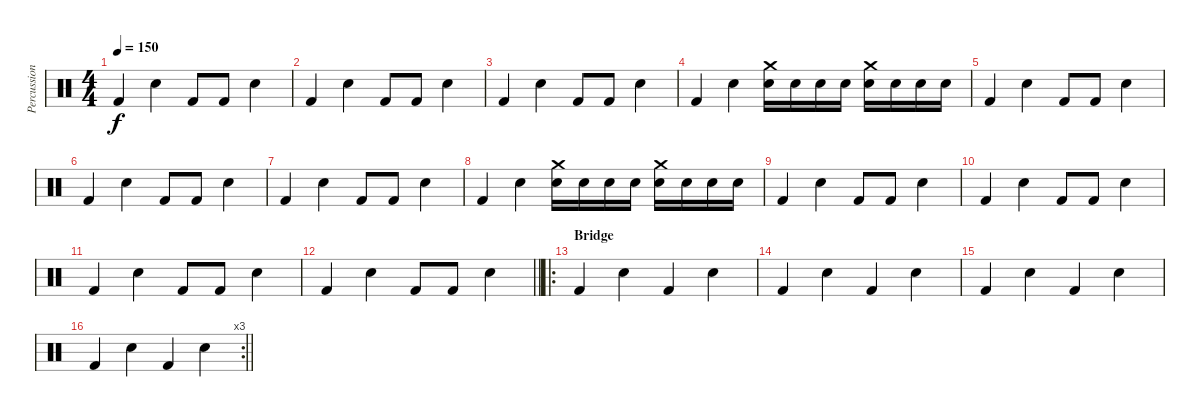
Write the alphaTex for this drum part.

\track ("Percussion" "Percussion") {instrument percussion bank 255}
\staff {score}
\articulation defaults
\ts (4 4)
\tempo 150
\clef neutral
\ks c "Kick (hit) 2".4{dy f} "Electric Snare (hit)".4 "Kick (hit) 2".8 "Kick (hit) 2".8 "Electric Snare (hit)".4
|
"Kick (hit) 2".4 "Electric Snare (hit)".4 "Kick (hit) 2".8 "Kick (hit) 2".8 "Electric Snare (hit)".4 |
"Kick (hit) 2".4 "Electric Snare (hit)".4 "Kick (hit) 2".8 "Kick (hit) 2".8 "Electric Snare (hit)".4 |
"Kick (hit) 2".4 "Electric Snare (hit)".4 ("Crash medium (hit)" "Electric Snare (hit)").16 "Electric Snare (hit)".16 "Electric Snare (hit)".16 "Electric Snare (hit)".16 ("Crash medium (hit)" "Electric Snare (hit)").16 "Electric Snare (hit)".16 "Electric Snare (hit)".16 "Electric Snare (hit)".16 |
"Kick (hit) 2".4 "Electric Snare (hit)".4 "Kick (hit) 2".8 "Kick (hit) 2".8 "Electric Snare (hit)".4 |
"Kick (hit) 2".4 "Electric Snare (hit)".4 "Kick (hit) 2".8 "Kick (hit) 2".8 "Electric Snare (hit)".4 |
"Kick (hit) 2".4 "Electric Snare (hit)".4 "Kick (hit) 2".8 "Kick (hit) 2".8 "Electric Snare (hit)".4 |
"Kick (hit) 2".4 "Electric Snare (hit)".4 ("Crash medium (hit)" "Electric Snare (hit)").16 "Electric Snare (hit)".16 "Electric Snare (hit)".16 "Electric Snare (hit)".16 ("Crash medium (hit)" "Electric Snare (hit)").16 "Electric Snare (hit)".16 "Electric Snare (hit)".16 "Electric Snare (hit)".16 |
"Kick (hit) 2".4 "Electric Snare (hit)".4 "Kick (hit) 2".8 "Kick (hit) 2".8 "Electric Snare (hit)".4 |
"Kick (hit) 2".4 "Electric Snare (hit)".4 "Kick (hit) 2".8 "Kick (hit) 2".8 "Electric Snare (hit)".4 |
"Kick (hit) 2".4 "Electric Snare (hit)".4 "Kick (hit) 2".8 "Kick (hit) 2".8 "Electric Snare (hit)".4 |
\barLineRight lightlight "Kick (hit) 2".4 "Electric Snare (hit)".4 "Kick (hit) 2".8 "Kick (hit) 2".8 "Electric Snare (hit)".4
|
\ro
\section ("" "Bridge")
"Kick (hit) 2".4 "Electric Snare (hit)".4 "Kick (hit) 2".4 "Electric Snare (hit)".4 |
"Kick (hit) 2".4 "Electric Snare (hit)".4 "Kick (hit) 2".4 "Electric Snare (hit)".4 |
"Kick (hit) 2".4 "Electric Snare (hit)".4 "Kick (hit) 2".4 "Electric Snare (hit)".4 |
\rc 3
\barLineRight lightlight "Kick (hit) 2".4 "Electric Snare (hit)".4 "Kick (hit) 2".4 "Electric Snare (hit)".4
